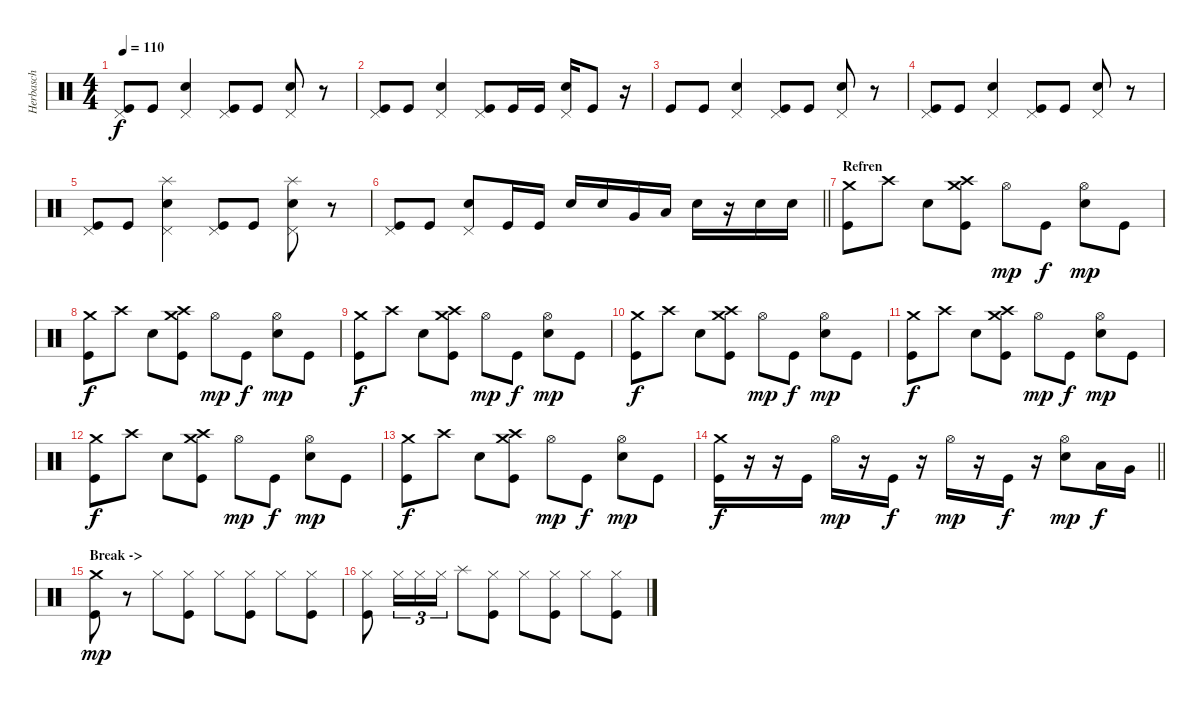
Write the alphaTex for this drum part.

\track ("Herbasch" "Herbasch") {instrument percussion}
\staff {score}
\articulation defaults
\ts (4 4)
\tempo 110
\clef neutral
\ks c
("Pedal Hi-Hat (hit)" "Kick (hit)").8{dy f} "Kick (hit)".8 ("Pedal Hi-Hat (hit)" "Electric Snare (hit)").4 ("Pedal Hi-Hat (hit)" "Kick (hit)").8 "Kick (hit)".8 ("Pedal Hi-Hat (hit)" "Electric Snare (hit)").8 r.8 |
("Pedal Hi-Hat (hit)" "Kick (hit)").8 "Kick (hit)".8 ("Pedal Hi-Hat (hit)" "Electric Snare (hit)").4 ("Pedal Hi-Hat (hit)" "Kick (hit)").8 "Kick (hit)".16 "Kick (hit)".16 ("Pedal Hi-Hat (hit)" "Electric Snare (hit)").16 "Kick (hit)".8 r.16 |
"Kick (hit)".8 "Kick (hit)".8 ("Pedal Hi-Hat (hit)" "Electric Snare (hit)").4 ("Pedal Hi-Hat (hit)" "Kick (hit)").8 "Kick (hit)".8 ("Pedal Hi-Hat (hit)" "Electric Snare (hit)").8 r.8 |
("Pedal Hi-Hat (hit)" "Kick (hit)").8 "Kick (hit)".8 ("Pedal Hi-Hat (hit)" "Electric Snare (hit)").4 ("Pedal Hi-Hat (hit)" "Kick (hit)").8 "Kick (hit)".8 ("Pedal Hi-Hat (hit)" "Electric Snare (hit)").8 r.8 |
("Pedal Hi-Hat (hit)" "Kick (hit)").8 "Kick (hit)".8 ("Pedal Hi-Hat (hit)" "Electric Snare (hit)" "Splash (hit)").4 ("Pedal Hi-Hat (hit)" "Kick (hit)").8 "Kick (hit)".8 ("Pedal Hi-Hat (hit)" "Electric Snare (hit)" "Splash (hit)").8 r.8 |
\barLineRight lightlight
("Pedal Hi-Hat (hit)" "Kick (hit)").8 "Kick (hit)".8 ("Pedal Hi-Hat (hit)" "Electric Snare (hit)").8 "Kick (hit)".16 "Kick (hit)".16 "Electric Snare (hit)".16 "Electric Snare (hit)".16 "Very Low Tom (hit)".16 "Low Floor Tom (hit)".16 "Electric Snare (hit)".16 r.16 "Electric Snare (hit)".16 "Electric Snare (hit)".16 |
\section ("" "Refren")
("Crash medium (hit)" "Kick (hit)").8 "Crash high (hit)".8 "Electric Snare (hit)".8 ("Crash medium (hit)" "Kick (hit)" "Crash high (hit)").8 "Hi-Hat (open)".8{dy mp} "Kick (hit)".8{dy f} ("Hi-Hat (open)" "Electric Snare (hit)").8{dy mp} "Kick (hit)".8 |
("Crash medium (hit)" "Kick (hit)").8{dy f} "Crash high (hit)".8 "Electric Snare (hit)".8 ("Crash medium (hit)" "Kick (hit)" "Crash high (hit)").8 "Hi-Hat (open)".8{dy mp} "Kick (hit)".8{dy f} ("Hi-Hat (open)" "Electric Snare (hit)").8{dy mp} "Kick (hit)".8 |
("Crash medium (hit)" "Kick (hit)").8{dy f} "Crash high (hit)".8 "Electric Snare (hit)".8 ("Crash medium (hit)" "Kick (hit)" "Crash high (hit)").8 "Hi-Hat (open)".8{dy mp} "Kick (hit)".8{dy f} ("Hi-Hat (open)" "Electric Snare (hit)").8{dy mp} "Kick (hit)".8 |
("Crash medium (hit)" "Kick (hit)").8{dy f} "Crash high (hit)".8 "Electric Snare (hit)".8 ("Crash medium (hit)" "Kick (hit)" "Crash high (hit)").8 "Hi-Hat (open)".8{dy mp} "Kick (hit)".8{dy f} ("Hi-Hat (open)" "Electric Snare (hit)").8{dy mp} "Kick (hit)".8 |
("Crash medium (hit)" "Kick (hit)").8{dy f} "Crash high (hit)".8 "Electric Snare (hit)".8 ("Crash medium (hit)" "Kick (hit)" "Crash high (hit)").8 "Hi-Hat (open)".8{dy mp} "Kick (hit)".8{dy f} ("Hi-Hat (open)" "Electric Snare (hit)").8{dy mp} "Kick (hit)".8 |
("Crash medium (hit)" "Kick (hit)").8{dy f} "Crash high (hit)".8 "Electric Snare (hit)".8 ("Crash medium (hit)" "Kick (hit)" "Crash high (hit)").8 "Hi-Hat (open)".8{dy mp} "Kick (hit)".8{dy f} ("Hi-Hat (open)" "Electric Snare (hit)").8{dy mp} "Kick (hit)".8 |
("Crash medium (hit)" "Kick (hit)").8{dy f} "Crash high (hit)".8 "Electric Snare (hit)".8 ("Crash medium (hit)" "Kick (hit)" "Crash high (hit)").8 "Hi-Hat (open)".8{dy mp} "Kick (hit)".8{dy f} ("Hi-Hat (open)" "Electric Snare (hit)").8{dy mp} "Kick (hit)".8 |
\barLineRight lightlight
("Crash medium (hit)" "Kick (hit)").16{dy f} r.16 r.16 "Kick (hit)".16 "Hi-Hat (open)".16{dy mp} r.16 "Kick (hit)".16{dy f} r.16 "Hi-Hat (open)".16{dy mp} r.16 "Kick (hit)".16{dy f} r.16 ("Hi-Hat (open)" "Electric Snare (hit)").8{dy mp} "Low Tom (hit)".16{dy f} "Very Low Tom (hit)".16 |
\section ("" "Break ->")
("Crash medium (hit)" "Kick (hit)").8{dy mp} r.8 "Hi-Hat (closed)".8 ("Hi-Hat (closed)" "Kick (hit)").8 "Hi-Hat (closed)".8 ("Hi-Hat (closed)" "Kick (hit)").8 "Hi-Hat (closed)".8 ("Hi-Hat (closed)" "Kick (hit)").8 |
("Hi-Hat (closed)" "Kick (hit)").8 "Hi-Hat (closed)".16{tu (3 2)} "Hi-Hat (closed)".16{tu (3 2)} "Hi-Hat (closed)".16{tu (3 2)} "Splash (hit)".8 ("Hi-Hat (closed)" "Kick (hit)").8 "Hi-Hat (closed)".8 ("Hi-Hat (closed)" "Kick (hit)").8 "Hi-Hat (closed)".8 ("Hi-Hat (closed)" "Kick (hit)").8
